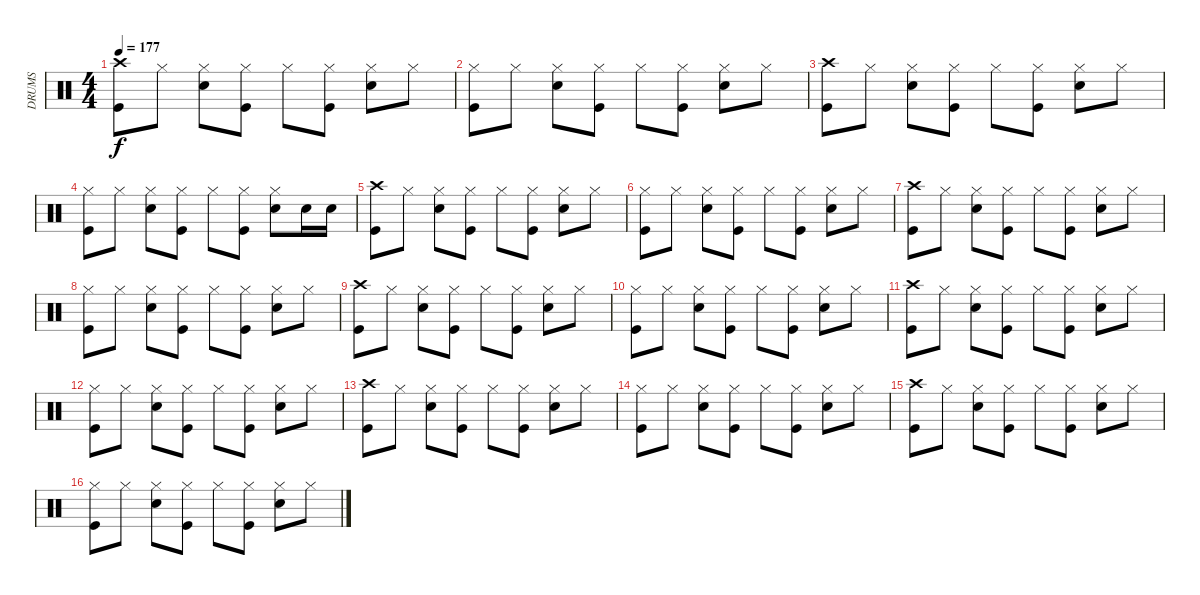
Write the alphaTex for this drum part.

\track ("DRUMS" "DRUMS") {instrument percussion}
\staff {score}
\articulation defaults
\ts (4 4)
\tempo 177
\clef neutral
\ks c
("Crash high (hit)" "Kick (hit)").8{dy f} "Hi-Hat (closed)".8 ("Hi-Hat (closed)" "Snare (hit) 2").8 ("Hi-Hat (closed)" "Kick (hit)").8 "Hi-Hat (closed)".8 ("Hi-Hat (closed)" "Kick (hit)").8 ("Hi-Hat (closed)" "Snare (hit) 2").8 "Hi-Hat (closed)".8 |
("Hi-Hat (closed)" "Kick (hit)").8 "Hi-Hat (closed)".8 ("Hi-Hat (closed)" "Snare (hit) 2").8 ("Hi-Hat (closed)" "Kick (hit)").8 "Hi-Hat (closed)".8 ("Hi-Hat (closed)" "Kick (hit)").8 ("Hi-Hat (closed)" "Snare (hit) 2").8 "Hi-Hat (closed)".8 |
("Crash high (hit)" "Kick (hit)").8 "Hi-Hat (closed)".8 ("Hi-Hat (closed)" "Snare (hit) 2").8 ("Hi-Hat (closed)" "Kick (hit)").8 "Hi-Hat (closed)".8 ("Hi-Hat (closed)" "Kick (hit)").8 ("Hi-Hat (closed)" "Snare (hit) 2").8 "Hi-Hat (closed)".8 |
("Hi-Hat (closed)" "Kick (hit)").8 "Hi-Hat (closed)".8 ("Hi-Hat (closed)" "Snare (hit) 2").8 ("Hi-Hat (closed)" "Kick (hit)").8 "Hi-Hat (closed)".8 ("Hi-Hat (closed)" "Kick (hit)").8 ("Hi-Hat (closed)" "Snare (hit) 2").8 "Snare (hit) 2".16 "Snare (hit) 2".16 |
("Crash high (hit)" "Kick (hit)").8 "Hi-Hat (closed)".8 ("Hi-Hat (closed)" "Snare (hit) 2").8 ("Hi-Hat (closed)" "Kick (hit)").8 "Hi-Hat (closed)".8 ("Hi-Hat (closed)" "Kick (hit)").8 ("Hi-Hat (closed)" "Snare (hit) 2").8 "Hi-Hat (closed)".8 |
("Hi-Hat (closed)" "Kick (hit)").8 "Hi-Hat (closed)".8 ("Hi-Hat (closed)" "Snare (hit) 2").8 ("Hi-Hat (closed)" "Kick (hit)").8 "Hi-Hat (closed)".8 ("Hi-Hat (closed)" "Kick (hit)").8 ("Hi-Hat (closed)" "Snare (hit) 2").8 "Hi-Hat (closed)".8 |
("Crash high (hit)" "Kick (hit)").8 "Hi-Hat (closed)".8 ("Hi-Hat (closed)" "Snare (hit) 2").8 ("Hi-Hat (closed)" "Kick (hit)").8 "Hi-Hat (closed)".8 ("Hi-Hat (closed)" "Kick (hit)").8 ("Hi-Hat (closed)" "Snare (hit) 2").8 "Hi-Hat (closed)".8 |
("Hi-Hat (closed)" "Kick (hit)").8 "Hi-Hat (closed)".8 ("Hi-Hat (closed)" "Snare (hit) 2").8 ("Hi-Hat (closed)" "Kick (hit)").8 "Hi-Hat (closed)".8 ("Hi-Hat (closed)" "Kick (hit)").8 ("Hi-Hat (closed)" "Snare (hit) 2").8 "Hi-Hat (closed)".8 |
("Crash high (hit)" "Kick (hit)").8 "Hi-Hat (closed)".8 ("Hi-Hat (closed)" "Snare (hit) 2").8 ("Hi-Hat (closed)" "Kick (hit)").8 "Hi-Hat (closed)".8 ("Hi-Hat (closed)" "Kick (hit)").8 ("Hi-Hat (closed)" "Snare (hit) 2").8 "Hi-Hat (closed)".8 |
("Hi-Hat (closed)" "Kick (hit)").8 "Hi-Hat (closed)".8 ("Hi-Hat (closed)" "Snare (hit) 2").8 ("Hi-Hat (closed)" "Kick (hit)").8 "Hi-Hat (closed)".8 ("Hi-Hat (closed)" "Kick (hit)").8 ("Hi-Hat (closed)" "Snare (hit) 2").8 "Hi-Hat (closed)".8 |
("Crash high (hit)" "Kick (hit)").8 "Hi-Hat (closed)".8 ("Hi-Hat (closed)" "Snare (hit) 2").8 ("Hi-Hat (closed)" "Kick (hit)").8 "Hi-Hat (closed)".8 ("Hi-Hat (closed)" "Kick (hit)").8 ("Hi-Hat (closed)" "Snare (hit) 2").8 "Hi-Hat (closed)".8 |
("Hi-Hat (closed)" "Kick (hit)").8 "Hi-Hat (closed)".8 ("Hi-Hat (closed)" "Snare (hit) 2").8 ("Hi-Hat (closed)" "Kick (hit)").8 "Hi-Hat (closed)".8 ("Hi-Hat (closed)" "Kick (hit)").8 ("Hi-Hat (closed)" "Snare (hit) 2").8 "Hi-Hat (closed)".8 |
("Crash high (hit)" "Kick (hit)").8 "Hi-Hat (closed)".8 ("Hi-Hat (closed)" "Snare (hit) 2").8 ("Hi-Hat (closed)" "Kick (hit)").8 "Hi-Hat (closed)".8 ("Hi-Hat (closed)" "Kick (hit)").8 ("Hi-Hat (closed)" "Snare (hit) 2").8 "Hi-Hat (closed)".8 |
("Hi-Hat (closed)" "Kick (hit)").8 "Hi-Hat (closed)".8 ("Hi-Hat (closed)" "Snare (hit) 2").8 ("Hi-Hat (closed)" "Kick (hit)").8 "Hi-Hat (closed)".8 ("Hi-Hat (closed)" "Kick (hit)").8 ("Hi-Hat (closed)" "Snare (hit) 2").8 "Hi-Hat (closed)".8 |
("Crash high (hit)" "Kick (hit)").8 "Hi-Hat (closed)".8 ("Hi-Hat (closed)" "Snare (hit) 2").8 ("Hi-Hat (closed)" "Kick (hit)").8 "Hi-Hat (closed)".8 ("Hi-Hat (closed)" "Kick (hit)").8 ("Hi-Hat (closed)" "Snare (hit) 2").8 "Hi-Hat (closed)".8 |
("Hi-Hat (closed)" "Kick (hit)").8 "Hi-Hat (closed)".8 ("Hi-Hat (closed)" "Snare (hit) 2").8 ("Hi-Hat (closed)" "Kick (hit)").8 "Hi-Hat (closed)".8 ("Hi-Hat (closed)" "Kick (hit)").8 ("Hi-Hat (closed)" "Snare (hit) 2").8 "Hi-Hat (closed)".8
